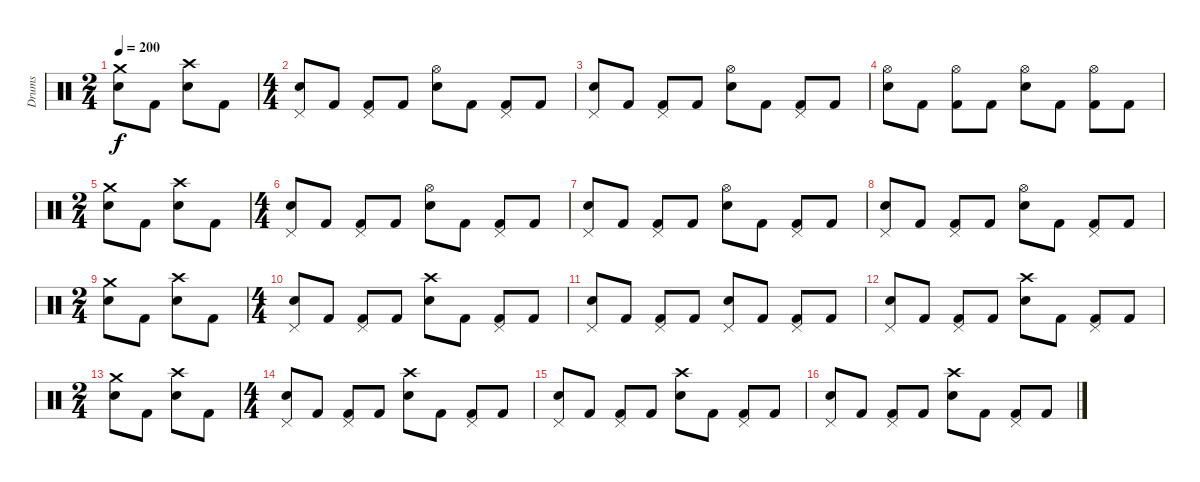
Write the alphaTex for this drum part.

\track ("Drums" "Drums") {instrument percussion}
\staff {score}
\articulation defaults
\ts (2 4)
\tempo 200
\clef neutral
\ks c
("Crash medium (hit)" "Electric Snare (hit)").8{dy f} "Kick (hit) 2".8 ("Crash high (hit)" "Electric Snare (hit)").8 "Kick (hit) 2".8 |
\ts (4 4)
("Pedal Hi-Hat (hit)" "Electric Snare (hit)").8 "Kick (hit) 2".8 ("Pedal Hi-Hat (hit)" "Kick (hit) 2").8 "Kick (hit) 2".8 ("Hi-Hat (open)" "Electric Snare (hit)").8 "Kick (hit) 2".8 ("Pedal Hi-Hat (hit)" "Kick (hit) 2").8 "Kick (hit) 2".8 |
("Pedal Hi-Hat (hit)" "Electric Snare (hit)").8 "Kick (hit) 2".8 ("Pedal Hi-Hat (hit)" "Kick (hit) 2").8 "Kick (hit) 2".8 ("Hi-Hat (open)" "Electric Snare (hit)").8 "Kick (hit) 2".8 ("Pedal Hi-Hat (hit)" "Kick (hit) 2").8 "Kick (hit) 2".8 |
("Hi-Hat (open)" "Electric Snare (hit)").8 "Kick (hit) 2".8 ("Hi-Hat (open)" "Kick (hit) 2").8 "Kick (hit) 2".8 ("Hi-Hat (open)" "Electric Snare (hit)").8 "Kick (hit) 2".8 ("Hi-Hat (open)" "Kick (hit) 2").8 "Kick (hit) 2".8 |
\ts (2 4)
("Crash medium (hit)" "Electric Snare (hit)").8 "Kick (hit) 2".8 ("Crash high (hit)" "Electric Snare (hit)").8 "Kick (hit) 2".8 |
\ts (4 4)
("Pedal Hi-Hat (hit)" "Electric Snare (hit)").8 "Kick (hit) 2".8 ("Pedal Hi-Hat (hit)" "Kick (hit) 2").8 "Kick (hit) 2".8 ("Hi-Hat (open)" "Electric Snare (hit)").8 "Kick (hit) 2".8 ("Pedal Hi-Hat (hit)" "Kick (hit) 2").8 "Kick (hit) 2".8 |
("Pedal Hi-Hat (hit)" "Electric Snare (hit)").8 "Kick (hit) 2".8 ("Pedal Hi-Hat (hit)" "Kick (hit) 2").8 "Kick (hit) 2".8 ("Hi-Hat (open)" "Electric Snare (hit)").8 "Kick (hit) 2".8 ("Pedal Hi-Hat (hit)" "Kick (hit) 2").8 "Kick (hit) 2".8 |
("Pedal Hi-Hat (hit)" "Electric Snare (hit)").8 "Kick (hit) 2".8 ("Pedal Hi-Hat (hit)" "Kick (hit) 2").8 "Kick (hit) 2".8 ("Hi-Hat (open)" "Electric Snare (hit)").8 "Kick (hit) 2".8 ("Pedal Hi-Hat (hit)" "Kick (hit) 2").8 "Kick (hit) 2".8 |
\ts (2 4)
("Crash medium (hit)" "Electric Snare (hit)").8 "Kick (hit) 2".8 ("Crash high (hit)" "Electric Snare (hit)").8 "Kick (hit) 2".8 |
\ts (4 4)
("Pedal Hi-Hat (hit)" "Electric Snare (hit)").8 "Kick (hit) 2".8 ("Pedal Hi-Hat (hit)" "Kick (hit) 2").8 "Kick (hit) 2".8 ("Crash high (hit)" "Electric Snare (hit)").8 "Kick (hit) 2".8 ("Pedal Hi-Hat (hit)" "Kick (hit) 2").8 "Kick (hit) 2".8 |
("Pedal Hi-Hat (hit)" "Electric Snare (hit)").8 "Kick (hit) 2".8 ("Pedal Hi-Hat (hit)" "Kick (hit) 2").8 "Kick (hit) 2".8 ("Pedal Hi-Hat (hit)" "Electric Snare (hit)").8 "Kick (hit) 2".8 ("Pedal Hi-Hat (hit)" "Kick (hit) 2").8 "Kick (hit) 2".8 |
("Pedal Hi-Hat (hit)" "Electric Snare (hit)").8 "Kick (hit) 2".8 ("Pedal Hi-Hat (hit)" "Kick (hit) 2").8 "Kick (hit) 2".8 ("Crash high (hit)" "Electric Snare (hit)").8 "Kick (hit) 2".8 ("Pedal Hi-Hat (hit)" "Kick (hit) 2").8 "Kick (hit) 2".8 |
\ts (2 4)
("Crash medium (hit)" "Electric Snare (hit)").8 "Kick (hit) 2".8 ("Crash high (hit)" "Electric Snare (hit)").8 "Kick (hit) 2".8 |
\ts (4 4)
("Pedal Hi-Hat (hit)" "Electric Snare (hit)").8 "Kick (hit) 2".8 ("Pedal Hi-Hat (hit)" "Kick (hit) 2").8 "Kick (hit) 2".8 ("Crash high (hit)" "Electric Snare (hit)").8 "Kick (hit) 2".8 ("Pedal Hi-Hat (hit)" "Kick (hit) 2").8 "Kick (hit) 2".8 |
("Pedal Hi-Hat (hit)" "Electric Snare (hit)").8 "Kick (hit) 2".8 ("Pedal Hi-Hat (hit)" "Kick (hit) 2").8 "Kick (hit) 2".8 ("Crash high (hit)" "Electric Snare (hit)").8 "Kick (hit) 2".8 ("Pedal Hi-Hat (hit)" "Kick (hit) 2").8 "Kick (hit) 2".8 |
("Pedal Hi-Hat (hit)" "Electric Snare (hit)").8 "Kick (hit) 2".8 ("Pedal Hi-Hat (hit)" "Kick (hit) 2").8 "Kick (hit) 2".8 ("Crash high (hit)" "Electric Snare (hit)").8 "Kick (hit) 2".8 ("Pedal Hi-Hat (hit)" "Kick (hit) 2").8 "Kick (hit) 2".8
